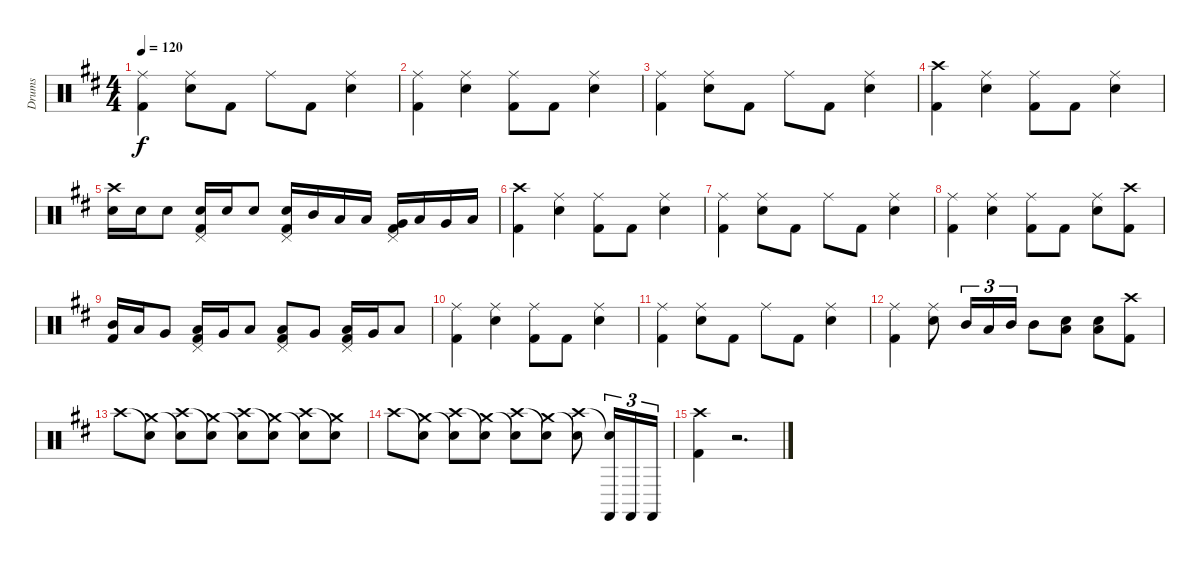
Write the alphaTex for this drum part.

\track ("Drums" "Drums") {instrument percussion}
\staff {score}
\articulation defaults
\ts (4 4)
\tempo 120
\clef neutral
\ks bminor
("Ride (middle)" "Kick (hit) 2").4{dy f} ("Ride (middle)" "Electric Snare (hit)").8 "Kick (hit) 2".8 "Ride (middle)".8 "Kick (hit) 2".8 ("Ride (middle)" "Electric Snare (hit)").4 |
("Ride (middle)" "Kick (hit) 2").4 ("Ride (middle)" "Electric Snare (hit)").4 ("Ride (middle)" "Kick (hit) 2").8 "Kick (hit) 2".8 ("Ride (middle)" "Electric Snare (hit)").4 |
("Ride (middle)" "Kick (hit) 2").4 ("Ride (middle)" "Electric Snare (hit)").8 "Kick (hit) 2".8 "Ride (middle)".8 "Kick (hit) 2".8 ("Ride (middle)" "Electric Snare (hit)").4 |
("Crash high (hit)" "Kick (hit) 2").4 ("Ride (middle)" "Electric Snare (hit)").4 ("Ride (middle)" "Kick (hit) 2").8 "Kick (hit) 2".8 ("Ride (middle)" "Electric Snare (hit)").4 |
("Crash high (hit)" "Electric Snare (hit)").16 "Electric Snare (hit)".16 "Electric Snare (hit)".8 ("Pedal Hi-Hat (hit)" "Electric Snare (hit)" "Kick (hit) 2").16 "Electric Snare (hit)".16 "Electric Snare (hit)".8 ("Pedal Hi-Hat (hit)" "Electric Snare (hit)" "Kick (hit) 2").16 "Mid Tom (hit)".16 "Low Tom (hit)".16 "Low Tom (hit)".16 ("Pedal Hi-Hat (hit)" "Very Low Tom (hit)" "Kick (hit) 2").16 "Low Tom (hit)".16 "Very Low Tom (hit)".16 "Low Floor Tom (hit)".16 |
("Crash high (hit)" "Kick (hit) 2").4 ("Ride (middle)" "Electric Snare (hit)").4 ("Ride (middle)" "Kick (hit) 2").8 "Kick (hit) 2".8 ("Ride (middle)" "Electric Snare (hit)").4 |
("Ride (middle)" "Kick (hit) 2").4 ("Ride (middle)" "Electric Snare (hit)").8 "Kick (hit) 2".8 "Ride (middle)".8 "Kick (hit) 2".8 ("Ride (middle)" "Electric Snare (hit)").4 |
("Ride (middle)" "Kick (hit) 2").4 ("Ride (middle)" "Electric Snare (hit)").4 ("Ride (middle)" "Kick (hit) 2").8 "Kick (hit) 2".8 ("Ride (middle)" "Electric Snare (hit)").8 ("Crash high (hit)" "Kick (hit) 2").8 |
("Mid Tom (hit)" "Kick (hit) 2").16 "Low Tom (hit)".16 "Very Low Tom (hit)".8 ("Pedal Hi-Hat (hit)" "Low Tom (hit)" "Kick (hit) 2").16 "Very Low Tom (hit)".16 "Low Floor Tom (hit)".8 ("Pedal Hi-Hat (hit)" "Low Tom (hit)" "Kick (hit) 2").8 "Very Low Tom (hit)".8 ("Pedal Hi-Hat (hit)" "Low Tom (hit)" "Kick (hit) 2").16 "Very Low Tom (hit)".16 "Low Floor Tom (hit)".8 |
("Ride (middle)" "Kick (hit) 2").4 ("Ride (middle)" "Electric Snare (hit)").4 ("Ride (middle)" "Kick (hit) 2").8 "Kick (hit) 2".8 ("Ride (middle)" "Electric Snare (hit)").4 |
("Ride (middle)" "Kick (hit) 2").4 ("Ride (middle)" "Electric Snare (hit)").8 "Kick (hit) 2".8 "Ride (middle)".8 "Kick (hit) 2".8 ("Ride (middle)" "Electric Snare (hit)").4 |
("Ride (middle)" "Kick (hit) 2").4 ("Ride (middle)" "Electric Snare (hit)").8 "Mid Tom (hit)".16{tu (3 2)} "Low Tom (hit)".16{tu (3 2)} "Mid Tom (hit)".16{tu (3 2)} "Mid Tom (hit)".8 ("Low Floor Tom (hit)" "Electric Snare (hit)").8 ("Low Floor Tom (hit)" "Electric Snare (hit)").8 ("Crash high (hit)" "Kick (hit) 2").8 |
"Crash high (hit)".8 ("Snare (hit)"{t} "Crash medium (hit)").8 ("Crash high (hit)" "Snare (hit)"{t}).8 ("Snare (hit)"{t} "Crash medium (hit)").8 ("Crash high (hit)" "Snare (hit)"{t}).8 ("Snare (hit)"{t} "Crash medium (hit)").8 ("Crash high (hit)" "Snare (hit)"{t}).8 ("Snare (hit)"{t} "Crash medium (hit)").8 |
"Crash high (hit)".8 ("Snare (hit)"{t} "Crash medium (hit)").8 ("Crash high (hit)" "Snare (hit)"{t}).8 ("Snare (hit)"{t} "Crash medium (hit)").8 ("Crash high (hit)" "Snare (hit)"{t}).8 ("Snare (hit)"{t} "Crash medium (hit)").8 ("Crash high (hit)" "Snare (hit)"{t}).8 ("Snare (hit)"{t} "Castanets (hit)").16{tu (3 2)} "Castanets (hit)".16{tu (3 2)} "Castanets (hit)".16{tu (3 2)} |
("Crash high (hit)" "Kick (hit) 2").4 r.2{d}
